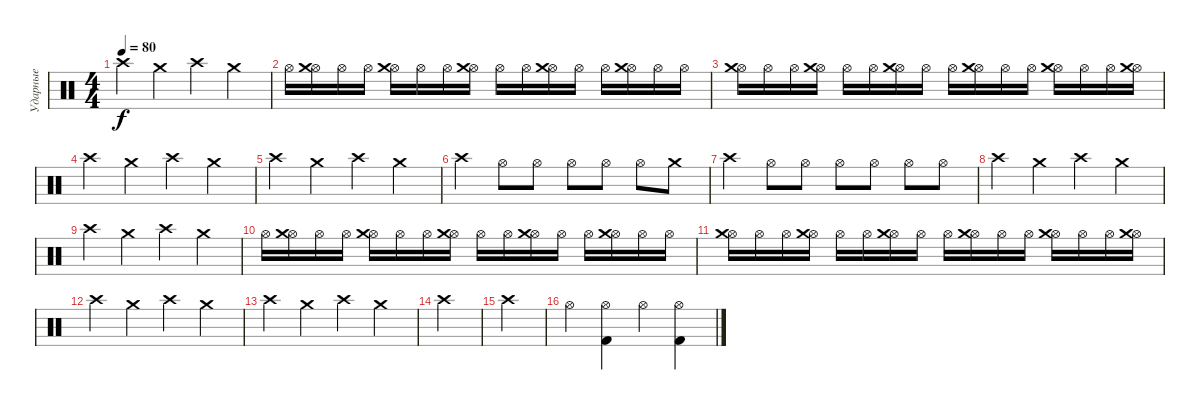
\track ("Ударные" "Ударные") {instrument percussion}
\staff {score}
\articulation defaults
\ts (4 4)
\tempo 80
\clef neutral
\ks c "Crash high (hit)".4{dy f} "Crash medium (hit)".4 "Crash high (hit)".4 "Crash medium (hit)".4
|
"Hi-Hat (open)".16 ("Hi-Hat (open)" "Crash medium (hit)").16 "Hi-Hat (open)".16 "Hi-Hat (open)".16 ("Hi-Hat (open)" "Crash medium (hit)").16 "Hi-Hat (open)".16 "Hi-Hat (open)".16 ("Hi-Hat (open)" "Crash medium (hit)").16 "Hi-Hat (open)".16 "Hi-Hat (open)".16 ("Hi-Hat (open)" "Crash medium (hit)").16 "Hi-Hat (open)".16 "Hi-Hat (open)".16 ("Hi-Hat (open)" "Crash medium (hit)").16 "Hi-Hat (open)".16 "Hi-Hat (open)".16 |
("Hi-Hat (open)" "Crash medium (hit)").16 "Hi-Hat (open)".16 "Hi-Hat (open)".16 ("Hi-Hat (open)" "Crash medium (hit)").16 "Hi-Hat (open)".16 "Hi-Hat (open)".16 ("Hi-Hat (open)" "Crash medium (hit)").16 "Hi-Hat (open)".16 "Hi-Hat (open)".16 ("Hi-Hat (open)" "Crash medium (hit)").16 "Hi-Hat (open)".16 "Hi-Hat (open)".16 ("Hi-Hat (open)" "Crash medium (hit)").16 "Hi-Hat (open)".16 "Hi-Hat (open)".16 ("Hi-Hat (open)" "Crash medium (hit)").16 |
"Crash high (hit)".4 "Crash medium (hit)".4 "Crash high (hit)".4 "Crash medium (hit)".4 |
"Crash high (hit)".4 "Crash medium (hit)".4 "Crash high (hit)".4 "Crash medium (hit)".4 |
"Crash high (hit)".4 "Hi-Hat (open)".8 "Hi-Hat (open)".8 "Hi-Hat (open)".8 "Hi-Hat (open)".8 "Hi-Hat (open)".8 "Crash medium (hit)".8 |
"Crash high (hit)".4 "Hi-Hat (open)".8 "Hi-Hat (open)".8 "Hi-Hat (open)".8 "Hi-Hat (open)".8 "Hi-Hat (open)".8 "Hi-Hat (open)".8 |
"Crash high (hit)".4 "Crash medium (hit)".4 "Crash high (hit)".4 "Crash medium (hit)".4 |
"Crash high (hit)".4 "Crash medium (hit)".4 "Crash high (hit)".4 "Crash medium (hit)".4 |
"Hi-Hat (open)".16 ("Hi-Hat (open)" "Crash medium (hit)").16 "Hi-Hat (open)".16 "Hi-Hat (open)".16 ("Hi-Hat (open)" "Crash medium (hit)").16 "Hi-Hat (open)".16 "Hi-Hat (open)".16 ("Hi-Hat (open)" "Crash medium (hit)").16 "Hi-Hat (open)".16 "Hi-Hat (open)".16 ("Hi-Hat (open)" "Crash medium (hit)").16 "Hi-Hat (open)".16 "Hi-Hat (open)".16 ("Hi-Hat (open)" "Crash medium (hit)").16 "Hi-Hat (open)".16 "Hi-Hat (open)".16 |
("Hi-Hat (open)" "Crash medium (hit)").16 "Hi-Hat (open)".16 "Hi-Hat (open)".16 ("Hi-Hat (open)" "Crash medium (hit)").16 "Hi-Hat (open)".16 "Hi-Hat (open)".16 ("Hi-Hat (open)" "Crash medium (hit)").16 "Hi-Hat (open)".16 "Hi-Hat (open)".16 ("Hi-Hat (open)" "Crash medium (hit)").16 "Hi-Hat (open)".16 "Hi-Hat (open)".16 ("Hi-Hat (open)" "Crash medium (hit)").16 "Hi-Hat (open)".16 "Hi-Hat (open)".16 ("Hi-Hat (open)" "Crash medium (hit)").16 |
"Crash high (hit)".4 "Crash medium (hit)".4 "Crash high (hit)".4 "Crash medium (hit)".4 |
"Crash high (hit)".4 "Crash medium (hit)".4 "Crash high (hit)".4 "Crash medium (hit)".4 |
"Crash high (hit)".4 |
"Crash high (hit)".4 |
"Hi-Hat (open)".4 ("Hi-Hat (open)" "Kick (hit) 2").4 "Hi-Hat (open)".4 ("Hi-Hat (open)" "Kick (hit) 2").4
